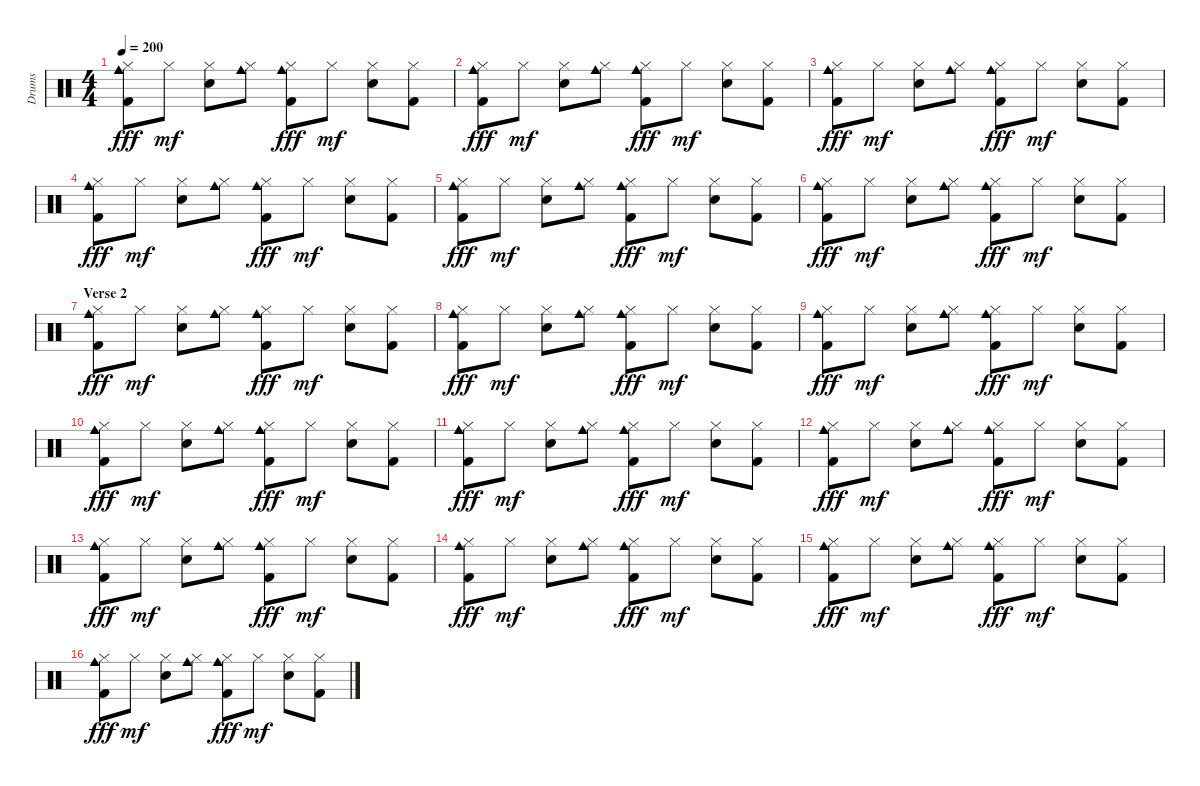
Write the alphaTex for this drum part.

\track ("Drums" "Drums") {instrument percussion}
\staff {score}
\articulation defaults
\ts (4 4)
\tempo 200
\clef neutral
\ks c
("Cowbell medium (hit)" "Hi-Hat (closed)" "Kick (hit) 2").8{dy fff} "Hi-Hat (closed)".8{dy mf} ("Hi-Hat (closed)" "Electric Snare (hit)").8 ("Cowbell medium (hit)" "Hi-Hat (closed)").8 ("Cowbell medium (hit)" "Hi-Hat (closed)" "Kick (hit) 2").8{dy fff} "Hi-Hat (closed)".8{dy mf} ("Hi-Hat (closed)" "Electric Snare (hit)").8 ("Hi-Hat (closed)" "Kick (hit) 2").8 |
("Cowbell medium (hit)" "Hi-Hat (closed)" "Kick (hit) 2").8{dy fff} "Hi-Hat (closed)".8{dy mf} ("Hi-Hat (closed)" "Electric Snare (hit)").8 ("Cowbell medium (hit)" "Hi-Hat (closed)").8 ("Cowbell medium (hit)" "Hi-Hat (closed)" "Kick (hit) 2").8{dy fff} "Hi-Hat (closed)".8{dy mf} ("Hi-Hat (closed)" "Electric Snare (hit)").8 ("Hi-Hat (closed)" "Kick (hit) 2").8 |
("Cowbell medium (hit)" "Hi-Hat (closed)" "Kick (hit) 2").8{dy fff} "Hi-Hat (closed)".8{dy mf} ("Hi-Hat (closed)" "Electric Snare (hit)").8 ("Cowbell medium (hit)" "Hi-Hat (closed)").8 ("Cowbell medium (hit)" "Hi-Hat (closed)" "Kick (hit) 2").8{dy fff} "Hi-Hat (closed)".8{dy mf} ("Hi-Hat (closed)" "Electric Snare (hit)").8 ("Hi-Hat (closed)" "Kick (hit) 2").8 |
("Cowbell medium (hit)" "Hi-Hat (closed)" "Kick (hit) 2").8{dy fff} "Hi-Hat (closed)".8{dy mf} ("Hi-Hat (closed)" "Electric Snare (hit)").8 ("Cowbell medium (hit)" "Hi-Hat (closed)").8 ("Cowbell medium (hit)" "Hi-Hat (closed)" "Kick (hit) 2").8{dy fff} "Hi-Hat (closed)".8{dy mf} ("Hi-Hat (closed)" "Electric Snare (hit)").8 ("Hi-Hat (closed)" "Kick (hit) 2").8 |
("Cowbell medium (hit)" "Hi-Hat (closed)" "Kick (hit) 2").8{dy fff} "Hi-Hat (closed)".8{dy mf} ("Hi-Hat (closed)" "Electric Snare (hit)").8 ("Cowbell medium (hit)" "Hi-Hat (closed)").8 ("Cowbell medium (hit)" "Hi-Hat (closed)" "Kick (hit) 2").8{dy fff} "Hi-Hat (closed)".8{dy mf} ("Hi-Hat (closed)" "Electric Snare (hit)").8 ("Hi-Hat (closed)" "Kick (hit) 2").8 |
("Cowbell medium (hit)" "Hi-Hat (closed)" "Kick (hit) 2").8{dy fff} "Hi-Hat (closed)".8{dy mf} ("Hi-Hat (closed)" "Electric Snare (hit)").8 ("Cowbell medium (hit)" "Hi-Hat (closed)").8 ("Cowbell medium (hit)" "Hi-Hat (closed)" "Kick (hit) 2").8{dy fff} "Hi-Hat (closed)".8{dy mf} ("Hi-Hat (closed)" "Electric Snare (hit)").8 ("Hi-Hat (closed)" "Kick (hit) 2").8 |
\section ("" "Verse 2")
("Cowbell medium (hit)" "Hi-Hat (closed)" "Kick (hit) 2").8{dy fff} "Hi-Hat (closed)".8{dy mf} ("Hi-Hat (closed)" "Electric Snare (hit)").8 ("Cowbell medium (hit)" "Hi-Hat (closed)").8 ("Cowbell medium (hit)" "Hi-Hat (closed)" "Kick (hit) 2").8{dy fff} "Hi-Hat (closed)".8{dy mf} ("Hi-Hat (closed)" "Electric Snare (hit)").8 ("Hi-Hat (closed)" "Kick (hit) 2").8 |
("Cowbell medium (hit)" "Hi-Hat (closed)" "Kick (hit) 2").8{dy fff} "Hi-Hat (closed)".8{dy mf} ("Hi-Hat (closed)" "Electric Snare (hit)").8 ("Cowbell medium (hit)" "Hi-Hat (closed)").8 ("Cowbell medium (hit)" "Hi-Hat (closed)" "Kick (hit) 2").8{dy fff} "Hi-Hat (closed)".8{dy mf} ("Hi-Hat (closed)" "Electric Snare (hit)").8 ("Hi-Hat (closed)" "Kick (hit) 2").8 |
("Cowbell medium (hit)" "Hi-Hat (closed)" "Kick (hit) 2").8{dy fff} "Hi-Hat (closed)".8{dy mf} ("Hi-Hat (closed)" "Electric Snare (hit)").8 ("Cowbell medium (hit)" "Hi-Hat (closed)").8 ("Cowbell medium (hit)" "Hi-Hat (closed)" "Kick (hit) 2").8{dy fff} "Hi-Hat (closed)".8{dy mf} ("Hi-Hat (closed)" "Electric Snare (hit)").8 ("Hi-Hat (closed)" "Kick (hit) 2").8 |
("Cowbell medium (hit)" "Hi-Hat (closed)" "Kick (hit) 2").8{dy fff} "Hi-Hat (closed)".8{dy mf} ("Hi-Hat (closed)" "Electric Snare (hit)").8 ("Cowbell medium (hit)" "Hi-Hat (closed)").8 ("Cowbell medium (hit)" "Hi-Hat (closed)" "Kick (hit) 2").8{dy fff} "Hi-Hat (closed)".8{dy mf} ("Hi-Hat (closed)" "Electric Snare (hit)").8 ("Hi-Hat (closed)" "Kick (hit) 2").8 |
("Cowbell medium (hit)" "Hi-Hat (closed)" "Kick (hit) 2").8{dy fff} "Hi-Hat (closed)".8{dy mf} ("Hi-Hat (closed)" "Electric Snare (hit)").8 ("Cowbell medium (hit)" "Hi-Hat (closed)").8 ("Cowbell medium (hit)" "Hi-Hat (closed)" "Kick (hit) 2").8{dy fff} "Hi-Hat (closed)".8{dy mf} ("Hi-Hat (closed)" "Electric Snare (hit)").8 ("Hi-Hat (closed)" "Kick (hit) 2").8 |
("Cowbell medium (hit)" "Hi-Hat (closed)" "Kick (hit) 2").8{dy fff} "Hi-Hat (closed)".8{dy mf} ("Hi-Hat (closed)" "Electric Snare (hit)").8 ("Cowbell medium (hit)" "Hi-Hat (closed)").8 ("Cowbell medium (hit)" "Hi-Hat (closed)" "Kick (hit) 2").8{dy fff} "Hi-Hat (closed)".8{dy mf} ("Hi-Hat (closed)" "Electric Snare (hit)").8 ("Hi-Hat (closed)" "Kick (hit) 2").8 |
("Cowbell medium (hit)" "Hi-Hat (closed)" "Kick (hit) 2").8{dy fff} "Hi-Hat (closed)".8{dy mf} ("Hi-Hat (closed)" "Electric Snare (hit)").8 ("Cowbell medium (hit)" "Hi-Hat (closed)").8 ("Cowbell medium (hit)" "Hi-Hat (closed)" "Kick (hit) 2").8{dy fff} "Hi-Hat (closed)".8{dy mf} ("Hi-Hat (closed)" "Electric Snare (hit)").8 ("Hi-Hat (closed)" "Kick (hit) 2").8 |
("Cowbell medium (hit)" "Hi-Hat (closed)" "Kick (hit) 2").8{dy fff} "Hi-Hat (closed)".8{dy mf} ("Hi-Hat (closed)" "Electric Snare (hit)").8 ("Cowbell medium (hit)" "Hi-Hat (closed)").8 ("Cowbell medium (hit)" "Hi-Hat (closed)" "Kick (hit) 2").8{dy fff} "Hi-Hat (closed)".8{dy mf} ("Hi-Hat (closed)" "Electric Snare (hit)").8 ("Hi-Hat (closed)" "Kick (hit) 2").8 |
("Cowbell medium (hit)" "Hi-Hat (closed)" "Kick (hit) 2").8{dy fff} "Hi-Hat (closed)".8{dy mf} ("Hi-Hat (closed)" "Electric Snare (hit)").8 ("Cowbell medium (hit)" "Hi-Hat (closed)").8 ("Cowbell medium (hit)" "Hi-Hat (closed)" "Kick (hit) 2").8{dy fff} "Hi-Hat (closed)".8{dy mf} ("Hi-Hat (closed)" "Electric Snare (hit)").8 ("Hi-Hat (closed)" "Kick (hit) 2").8 |
("Cowbell medium (hit)" "Hi-Hat (closed)" "Kick (hit) 2").8{dy fff} "Hi-Hat (closed)".8{dy mf} ("Hi-Hat (closed)" "Electric Snare (hit)").8 ("Cowbell medium (hit)" "Hi-Hat (closed)").8 ("Cowbell medium (hit)" "Hi-Hat (closed)" "Kick (hit) 2").8{dy fff} "Hi-Hat (closed)".8{dy mf} ("Hi-Hat (closed)" "Electric Snare (hit)").8 ("Hi-Hat (closed)" "Kick (hit) 2").8
